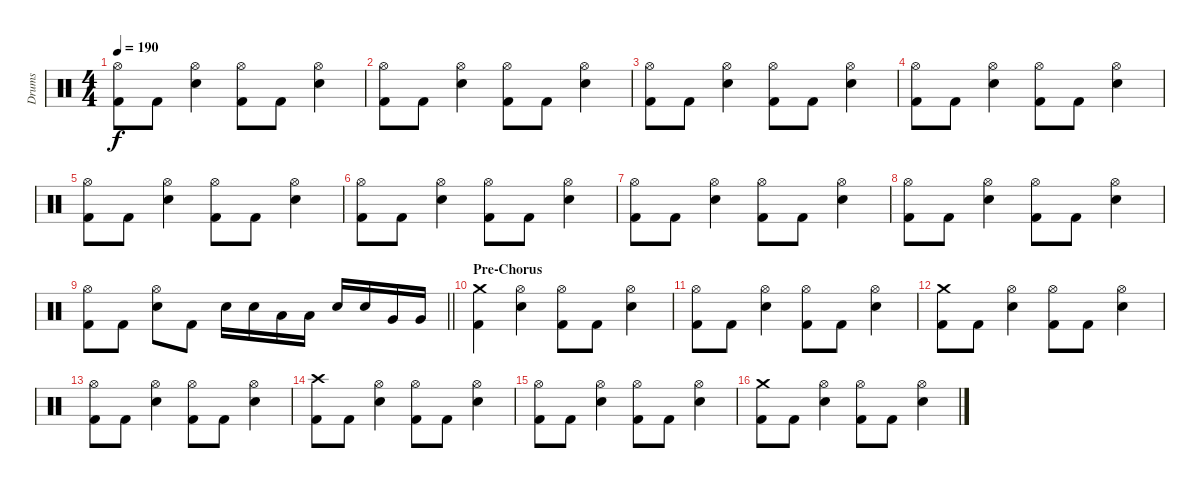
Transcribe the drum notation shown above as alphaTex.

\track ("Drums" "Drums") {instrument percussion}
\staff {score}
\articulation defaults
\ts (4 4)
\tempo 190
\clef neutral
\ks c
("Hi-Hat (open)" "Kick (hit) 2").8{dy f} "Kick (hit) 2".8 ("Hi-Hat (open)" "Electric Snare (hit)").4 ("Hi-Hat (open)" "Kick (hit) 2").8 "Kick (hit) 2".8 ("Hi-Hat (open)" "Electric Snare (hit)").4 |
("Hi-Hat (open)" "Kick (hit) 2").8 "Kick (hit) 2".8 ("Hi-Hat (open)" "Electric Snare (hit)").4 ("Hi-Hat (open)" "Kick (hit) 2").8 "Kick (hit) 2".8 ("Hi-Hat (open)" "Electric Snare (hit)").4 |
("Hi-Hat (open)" "Kick (hit) 2").8 "Kick (hit) 2".8 ("Hi-Hat (open)" "Electric Snare (hit)").4 ("Hi-Hat (open)" "Kick (hit) 2").8 "Kick (hit) 2".8 ("Hi-Hat (open)" "Electric Snare (hit)").4 |
("Hi-Hat (open)" "Kick (hit) 2").8 "Kick (hit) 2".8 ("Hi-Hat (open)" "Electric Snare (hit)").4 ("Hi-Hat (open)" "Kick (hit) 2").8 "Kick (hit) 2".8 ("Hi-Hat (open)" "Electric Snare (hit)").4 |
("Hi-Hat (open)" "Kick (hit) 2").8 "Kick (hit) 2".8 ("Hi-Hat (open)" "Electric Snare (hit)").4 ("Hi-Hat (open)" "Kick (hit) 2").8 "Kick (hit) 2".8 ("Hi-Hat (open)" "Electric Snare (hit)").4 |
("Hi-Hat (open)" "Kick (hit) 2").8 "Kick (hit) 2".8 ("Hi-Hat (open)" "Electric Snare (hit)").4 ("Hi-Hat (open)" "Kick (hit) 2").8 "Kick (hit) 2".8 ("Hi-Hat (open)" "Electric Snare (hit)").4 |
("Hi-Hat (open)" "Kick (hit) 2").8 "Kick (hit) 2".8 ("Hi-Hat (open)" "Electric Snare (hit)").4 ("Hi-Hat (open)" "Kick (hit) 2").8 "Kick (hit) 2".8 ("Hi-Hat (open)" "Electric Snare (hit)").4 |
("Hi-Hat (open)" "Kick (hit) 2").8 "Kick (hit) 2".8 ("Hi-Hat (open)" "Electric Snare (hit)").4 ("Hi-Hat (open)" "Kick (hit) 2").8 "Kick (hit) 2".8 ("Hi-Hat (open)" "Electric Snare (hit)").4 |
\barLineRight lightlight
("Hi-Hat (open)" "Kick (hit) 2").8 "Kick (hit) 2".8 ("Hi-Hat (open)" "Electric Snare (hit)").8 "Kick (hit) 2".8 "Electric Snare (hit)".16 "Electric Snare (hit)".16 "Low Tom (hit)".16 "Low Tom (hit)".16 "Electric Snare (hit)".16 "Electric Snare (hit)".16 "Very Low Tom (hit)".16 "Very Low Tom (hit)".16 |
\section ("" "Pre-Chorus")
("Crash medium (hit)" "Kick (hit) 2").4 ("Hi-Hat (open)" "Electric Snare (hit)").4 ("Hi-Hat (open)" "Kick (hit) 2").8 "Kick (hit) 2".8 ("Hi-Hat (open)" "Electric Snare (hit)").4 |
("Hi-Hat (open)" "Kick (hit) 2").8 "Kick (hit) 2".8 ("Hi-Hat (open)" "Electric Snare (hit)").4 ("Hi-Hat (open)" "Kick (hit) 2").8 "Kick (hit) 2".8 ("Hi-Hat (open)" "Electric Snare (hit)").4 |
("Crash medium (hit)" "Kick (hit) 2").8 "Kick (hit) 2".8 ("Hi-Hat (open)" "Electric Snare (hit)").4 ("Hi-Hat (open)" "Kick (hit) 2").8 "Kick (hit) 2".8 ("Hi-Hat (open)" "Electric Snare (hit)").4 |
("Hi-Hat (open)" "Kick (hit) 2").8 "Kick (hit) 2".8 ("Hi-Hat (open)" "Electric Snare (hit)").4 ("Hi-Hat (open)" "Kick (hit) 2").8 "Kick (hit) 2".8 ("Hi-Hat (open)" "Electric Snare (hit)").4 |
("Crash high (hit)" "Kick (hit) 2").8 "Kick (hit) 2".8 ("Hi-Hat (open)" "Electric Snare (hit)").4 ("Hi-Hat (open)" "Kick (hit) 2").8 "Kick (hit) 2".8 ("Hi-Hat (open)" "Electric Snare (hit)").4 |
("Hi-Hat (open)" "Kick (hit) 2").8 "Kick (hit) 2".8 ("Hi-Hat (open)" "Electric Snare (hit)").4 ("Hi-Hat (open)" "Kick (hit) 2").8 "Kick (hit) 2".8 ("Hi-Hat (open)" "Electric Snare (hit)").4 |
("Crash medium (hit)" "Kick (hit) 2").8 "Kick (hit) 2".8 ("Hi-Hat (open)" "Electric Snare (hit)").4 ("Hi-Hat (open)" "Kick (hit) 2").8 "Kick (hit) 2".8 ("Hi-Hat (open)" "Electric Snare (hit)").4
